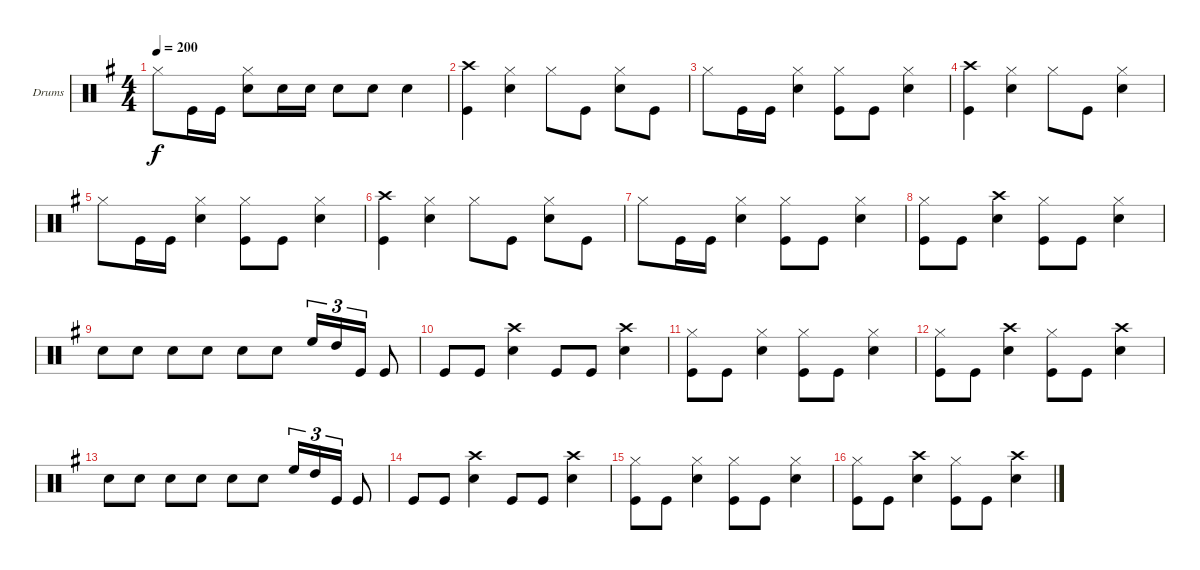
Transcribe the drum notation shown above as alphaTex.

\bracketExtendMode groupsimilarinstruments
\firstSystemTrackNameOrientation horizontal
\otherSystemsTrackNameOrientation horizontal
\track ("Drumkit" "Drums") {instrument percussion}
\staff {score}
\articulation defaults
\ts (4 4)
\tempo 200
\clef neutral
\ks g "Hi-Hat (closed)".8{dy f} "Kick (hit)".16 "Kick (hit)".16
("Snare (hit) 2" "Hi-Hat (closed)").8 "Snare (hit) 2".16 "Snare (hit) 2".16 "Snare (hit) 2".8 "Snare (hit) 2".8 "Snare (hit) 2".4 |
("Kick (hit)" "Crash high (hit)").4 ("Hi-Hat (closed)" "Snare (hit) 2").4 "Hi-Hat (closed)".8 "Kick (hit)".8 ("Snare (hit) 2" "Hi-Hat (closed)").8 "Kick (hit)".8 |
"Hi-Hat (closed)".8 "Kick (hit)".16 "Kick (hit)".16 ("Snare (hit) 2" "Hi-Hat (closed)").4 ("Kick (hit)" "Hi-Hat (closed)").8 "Kick (hit)".8 ("Snare (hit) 2" "Hi-Hat (closed)").4 |
("Kick (hit)" "Crash high (hit)").4 ("Hi-Hat (closed)" "Snare (hit) 2").4 "Hi-Hat (closed)".8 "Kick (hit)".8 ("Snare (hit) 2" "Hi-Hat (closed)").4 |
"Hi-Hat (closed)".8 "Kick (hit)".16 "Kick (hit)".16 ("Snare (hit) 2" "Hi-Hat (closed)").4 ("Kick (hit)" "Hi-Hat (closed)").8 "Kick (hit)".8 ("Hi-Hat (closed)" "Snare (hit) 2").4 |
("Kick (hit)" "Crash high (hit)").4 ("Hi-Hat (closed)" "Snare (hit) 2").4 "Hi-Hat (closed)".8 "Kick (hit)".8 ("Snare (hit) 2" "Hi-Hat (closed)").8 "Kick (hit)".8 |
"Hi-Hat (closed)".8 "Kick (hit)".16 "Kick (hit)".16 ("Snare (hit) 2" "Hi-Hat (closed)").4 ("Kick (hit)" "Hi-Hat (closed)").8 "Kick (hit)".8 ("Snare (hit) 2" "Hi-Hat (closed)").4 |
("Kick (hit)" "Hi-Hat (closed)").8 "Kick (hit)".8 ("Snare (hit) 2" "Crash high (hit)").4 ("Kick (hit)" "Hi-Hat (closed)").8 "Kick (hit)".8 ("Snare (hit) 2" "Hi-Hat (closed)").4 |
"Snare (hit) 2".8 "Snare (hit) 2".8 "Snare (hit) 2".8 "Snare (hit) 2".8 "Snare (hit) 2".8 "Snare (hit) 2".8 "High Floor Tom (hit)".16{tu (3 2)} "High Tom (hit)".16{tu (3 2)} "Kick (hit)".16{tu (3 2)} "Kick (hit)".8 |
"Kick (hit)".8 "Kick (hit)".8 ("Crash high (hit)" "Snare (hit) 2").4 "Kick (hit)".8 "Kick (hit)".8 ("Crash high (hit)" "Snare (hit) 2").4 |
("Kick (hit)" "Hi-Hat (closed)").8 "Kick (hit)".8 ("Snare (hit) 2" "Hi-Hat (closed)").4 ("Kick (hit)" "Hi-Hat (closed)").8 "Kick (hit)".8 ("Snare (hit) 2" "Hi-Hat (closed)").4 |
("Kick (hit)" "Hi-Hat (closed)").8 "Kick (hit)".8 ("Snare (hit) 2" "Crash high (hit)").4 ("Kick (hit)" "Hi-Hat (closed)").8 "Kick (hit)".8 ("Crash high (hit)" "Snare (hit) 2").4 |
"Snare (hit) 2".8 "Snare (hit) 2".8 "Snare (hit) 2".8 "Snare (hit) 2".8 "Snare (hit) 2".8 "Snare (hit) 2".8 "High Floor Tom (hit)".16{tu (3 2)} "High Tom (hit)".16{tu (3 2)} "Kick (hit)".16{tu (3 2)} "Kick (hit)".8 |
"Kick (hit)".8 "Kick (hit)".8 ("Crash high (hit)" "Snare (hit) 2").4 "Kick (hit)".8 "Kick (hit)".8 ("Crash high (hit)" "Snare (hit) 2").4 |
("Kick (hit)" "Hi-Hat (closed)").8 "Kick (hit)".8 ("Snare (hit) 2" "Hi-Hat (closed)").4 ("Kick (hit)" "Hi-Hat (closed)").8 "Kick (hit)".8 ("Snare (hit) 2" "Hi-Hat (closed)").4 |
("Kick (hit)" "Hi-Hat (closed)").8 "Kick (hit)".8 ("Snare (hit) 2" "Crash high (hit)").4 ("Kick (hit)" "Hi-Hat (closed)").8 "Kick (hit)".8 ("Crash high (hit)" "Snare (hit) 2").4
